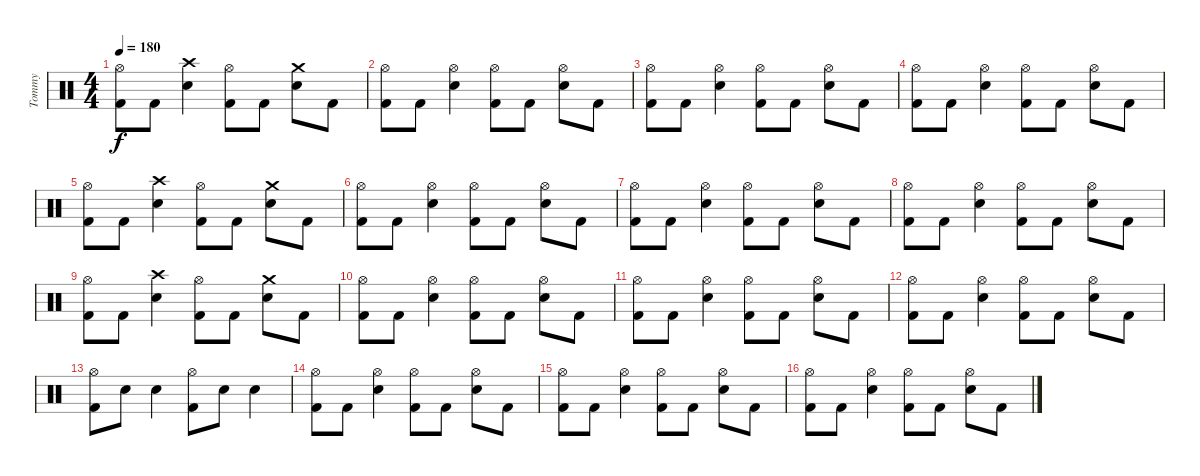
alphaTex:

\track ("Tommy" "Tommy") {instrument percussion}
\staff {score}
\articulation defaults
\ts (4 4)
\tempo 180
\clef neutral
\ks c
("Kick (hit) 2" "Hi-Hat (open)").8{dy f} "Kick (hit) 2".8 ("Snare (hit) 2" "Crash high (hit)").4 ("Kick (hit) 2" "Hi-Hat (open)").8 "Kick (hit) 2".8 ("Snare (hit) 2" "Crash medium (hit)").8 "Kick (hit) 2".8 |
("Kick (hit) 2" "Hi-Hat (open)").8 "Kick (hit) 2".8 ("Snare (hit) 2" "Hi-Hat (open)").4 ("Kick (hit) 2" "Hi-Hat (open)").8 "Kick (hit) 2".8 ("Snare (hit) 2" "Hi-Hat (open)").8 "Kick (hit) 2".8 |
("Kick (hit) 2" "Hi-Hat (open)").8 "Kick (hit) 2".8 ("Snare (hit) 2" "Hi-Hat (open)").4 ("Kick (hit) 2" "Hi-Hat (open)").8 "Kick (hit) 2".8 ("Snare (hit) 2" "Hi-Hat (open)").8 "Kick (hit) 2".8 |
("Kick (hit) 2" "Hi-Hat (open)").8 "Kick (hit) 2".8 ("Snare (hit) 2" "Hi-Hat (open)").4 ("Kick (hit) 2" "Hi-Hat (open)").8 "Kick (hit) 2".8 ("Snare (hit) 2" "Hi-Hat (open)").8 "Kick (hit) 2".8 |
("Kick (hit) 2" "Hi-Hat (open)").8 "Kick (hit) 2".8 ("Snare (hit) 2" "Crash high (hit)").4 ("Kick (hit) 2" "Hi-Hat (open)").8 "Kick (hit) 2".8 ("Snare (hit) 2" "Crash medium (hit)").8 "Kick (hit) 2".8 |
("Kick (hit) 2" "Hi-Hat (open)").8 "Kick (hit) 2".8 ("Snare (hit) 2" "Hi-Hat (open)").4 ("Kick (hit) 2" "Hi-Hat (open)").8 "Kick (hit) 2".8 ("Snare (hit) 2" "Hi-Hat (open)").8 "Kick (hit) 2".8 |
("Kick (hit) 2" "Hi-Hat (open)").8 "Kick (hit) 2".8 ("Snare (hit) 2" "Hi-Hat (open)").4 ("Kick (hit) 2" "Hi-Hat (open)").8 "Kick (hit) 2".8 ("Snare (hit) 2" "Hi-Hat (open)").8 "Kick (hit) 2".8 |
("Kick (hit) 2" "Hi-Hat (open)").8 "Kick (hit) 2".8 ("Snare (hit) 2" "Hi-Hat (open)").4 ("Kick (hit) 2" "Hi-Hat (open)").8 "Kick (hit) 2".8 ("Snare (hit) 2" "Hi-Hat (open)").8 "Kick (hit) 2".8 |
("Kick (hit) 2" "Hi-Hat (open)").8 "Kick (hit) 2".8 ("Snare (hit) 2" "Crash high (hit)").4 ("Kick (hit) 2" "Hi-Hat (open)").8 "Kick (hit) 2".8 ("Snare (hit) 2" "Crash medium (hit)").8 "Kick (hit) 2".8 |
("Kick (hit) 2" "Hi-Hat (open)").8 "Kick (hit) 2".8 ("Snare (hit) 2" "Hi-Hat (open)").4 ("Kick (hit) 2" "Hi-Hat (open)").8 "Kick (hit) 2".8 ("Snare (hit) 2" "Hi-Hat (open)").8 "Kick (hit) 2".8 |
("Kick (hit) 2" "Hi-Hat (open)").8 "Kick (hit) 2".8 ("Snare (hit) 2" "Hi-Hat (open)").4 ("Kick (hit) 2" "Hi-Hat (open)").8 "Kick (hit) 2".8 ("Snare (hit) 2" "Hi-Hat (open)").8 "Kick (hit) 2".8 |
("Kick (hit) 2" "Hi-Hat (open)").8 "Kick (hit) 2".8 ("Snare (hit) 2" "Hi-Hat (open)").4 ("Kick (hit) 2" "Hi-Hat (open)").8 "Kick (hit) 2".8 ("Snare (hit) 2" "Hi-Hat (open)").8 "Kick (hit) 2".8 |
("Kick (hit) 2" "Hi-Hat (open)").8 "Snare (hit) 2".8 "Snare (hit) 2".4 ("Kick (hit) 2" "Hi-Hat (open)").8 "Snare (hit) 2".8 "Snare (hit) 2".4 |
("Kick (hit) 2" "Hi-Hat (open)").8 "Kick (hit) 2".8 ("Snare (hit) 2" "Hi-Hat (open)").4 ("Kick (hit) 2" "Hi-Hat (open)").8 "Kick (hit) 2".8 ("Snare (hit) 2" "Hi-Hat (open)").8 "Kick (hit) 2".8 |
("Kick (hit) 2" "Hi-Hat (open)").8 "Kick (hit) 2".8 ("Snare (hit) 2" "Hi-Hat (open)").4 ("Kick (hit) 2" "Hi-Hat (open)").8 "Kick (hit) 2".8 ("Snare (hit) 2" "Hi-Hat (open)").8 "Kick (hit) 2".8 |
("Kick (hit) 2" "Hi-Hat (open)").8 "Kick (hit) 2".8 ("Snare (hit) 2" "Hi-Hat (open)").4 ("Kick (hit) 2" "Hi-Hat (open)").8 "Kick (hit) 2".8 ("Snare (hit) 2" "Hi-Hat (open)").8 "Kick (hit) 2".8
